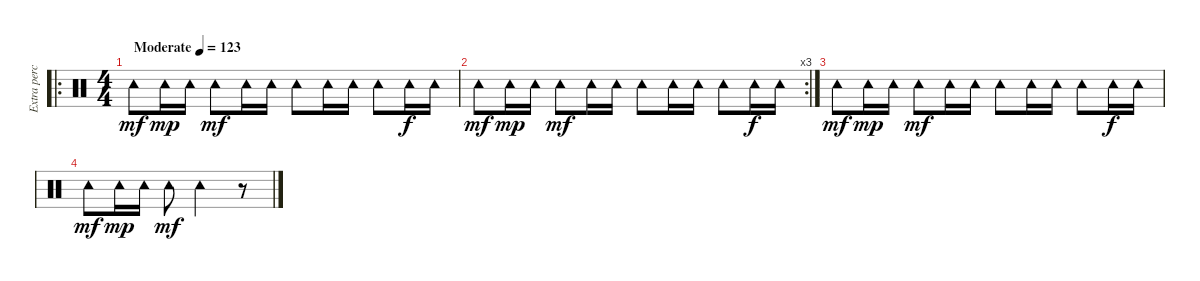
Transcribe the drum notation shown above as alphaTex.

\track ("Extra percussion" "Extra perc") {instrument percussion}
\staff {score}
\articulation defaults
\ro
\ts (4 4)
\tempo (123 "Moderate")
\clef neutral
\ks c "Tambourine (hit)".8{dy mf} "Tambourine (hit)".16{dy mp} "Tambourine (hit)".16 "Tambourine (hit)".8{dy mf} "Tambourine (hit)".16 "Tambourine (hit)".16 "Tambourine (hit)".8 "Tambourine (hit)".16 "Tambourine (hit)".16 "Tambourine (hit)".8 "Tambourine (hit)".16{dy f} "Tambourine (hit)".16
|
\rc 3 "Tambourine (hit)".8{dy mf} "Tambourine (hit)".16{dy mp} "Tambourine (hit)".16 "Tambourine (hit)".8{dy mf} "Tambourine (hit)".16 "Tambourine (hit)".16 "Tambourine (hit)".8 "Tambourine (hit)".16 "Tambourine (hit)".16 "Tambourine (hit)".8 "Tambourine (hit)".16{dy f} "Tambourine (hit)".16
|
"Tambourine (hit)".8{dy mf} "Tambourine (hit)".16{dy mp} "Tambourine (hit)".16 "Tambourine (hit)".8{dy mf} "Tambourine (hit)".16 "Tambourine (hit)".16 "Tambourine (hit)".8 "Tambourine (hit)".16 "Tambourine (hit)".16 "Tambourine (hit)".8 "Tambourine (hit)".16{dy f} "Tambourine (hit)".16 |
"Tambourine (hit)".8{dy mf} "Tambourine (hit)".16{dy mp} "Tambourine (hit)".16 "Tambourine (hit)".8{dy mf} "Tambourine (hit)".2 r.8
